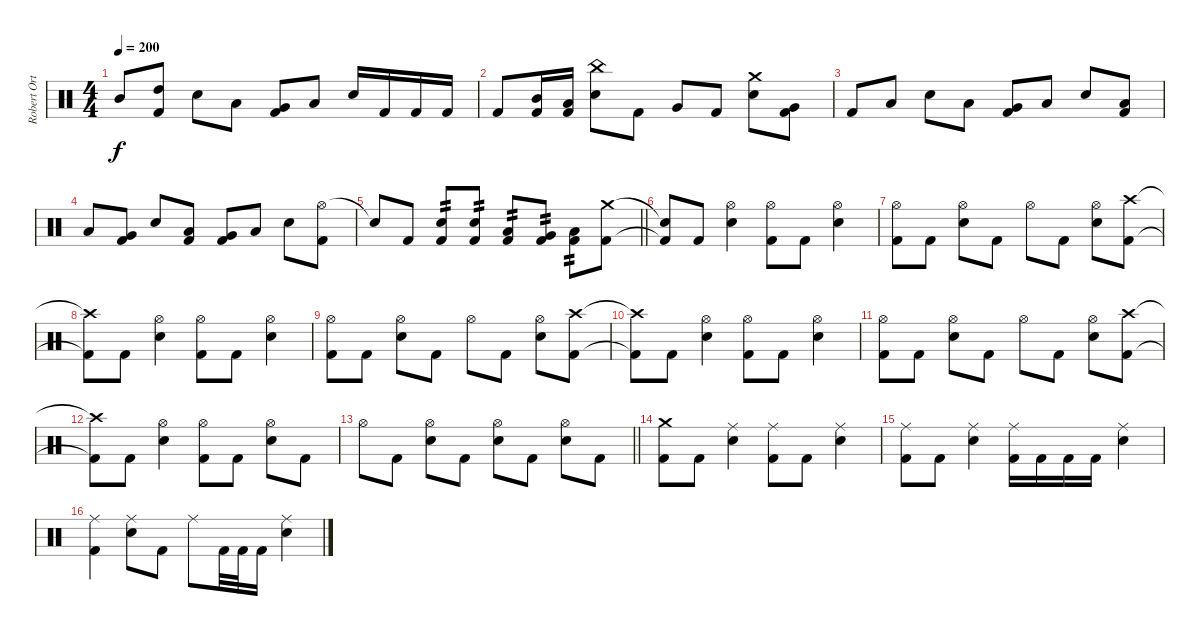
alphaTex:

\track ("Robert Ortiz - Drums" "Robert Ort") {instrument percussion}
\staff {score}
\articulation defaults
\ts (4 4)
\tempo 200
\clef neutral
\ks c "Mid Tom (hit)".8{dy f}
("High Tom (hit)" "Kick (hit) 2").8 "Electric Snare (hit)".8 "Low Floor Tom (hit)".8 ("Very Low Tom (hit)" "Kick (hit) 2").8 "Low Floor Tom (hit)".8 "Electric Snare (hit)".16 "Kick (hit) 2".16 "Kick (hit) 2".16 "Kick (hit) 2".16 |
"Kick (hit) 2".8 ("Mid Tom (hit)" "Kick (hit) 2").16 ("Low Tom (hit)" "Kick (hit) 2").16 ("China (hit)" "Electric Snare (hit)").8 "Kick (hit) 2".8 "Very Low Tom (hit)".8 "Kick (hit) 2".8 ("Crash medium (hit)" "Electric Snare (hit)").8 ("Very Low Tom (hit)" "Kick (hit) 2").8 |
"Kick (hit) 2".8 "Low Floor Tom (hit)".8 "Electric Snare (hit)".8 "Low Tom (hit)".8 ("Very Low Tom (hit)" "Kick (hit) 2").8 "Low Floor Tom (hit)".8 "Electric Snare (hit)".8 ("Low Floor Tom (hit)" "Kick (hit) 2").8 |
"Low Floor Tom (hit)".8 ("Very Low Tom (hit)" "Kick (hit) 2").8 "Electric Snare (hit)".8 ("Low Floor Tom (hit)" "Kick (hit) 2").8 ("Very Low Tom (hit)" "Kick (hit) 2").8 "Low Floor Tom (hit)".8 "Electric Snare (hit)".8 ("Hi-Hat (open)" "Kick (hit) 2").8 |
\barLineRight lightlight "Snare (hit)"{t}.8 "Kick (hit) 2".8
("Electric Snare (hit)" "Kick (hit) 2").8{tp 2} ("Electric Snare (hit)" "Kick (hit) 2").8{tp 2} ("Low Tom (hit)" "Kick (hit) 2").8{tp 2} ("Very Low Tom (hit)" "Kick (hit) 2").8{tp 2} ("Low Floor Tom (hit)" "Kick (hit) 2").8{tp 2} ("Crash medium (hit)" "Kick (hit) 2").8 |
("Snare (hit)"{t} "Kick (hit) 2"{t}).8 "Kick (hit) 2".8 ("Hi-Hat (open)" "Electric Snare (hit)").4 ("Hi-Hat (open)" "Kick (hit) 2").8 "Kick (hit) 2".8 ("Hi-Hat (open)" "Electric Snare (hit)").4 |
("Hi-Hat (open)" "Kick (hit) 2").8 "Kick (hit) 2".8 ("Hi-Hat (open)" "Electric Snare (hit)").8 "Kick (hit) 2".8 "Hi-Hat (open)".8 "Kick (hit) 2".8 ("Hi-Hat (open)" "Electric Snare (hit)").8 ("Crash high (hit)" "Kick (hit) 2").8 |
("Crash high (hit)"{t} "Kick (hit) 2"{t}).8 "Kick (hit) 2".8 ("Hi-Hat (open)" "Electric Snare (hit)").4 ("Hi-Hat (open)" "Kick (hit) 2").8 "Kick (hit) 2".8 ("Hi-Hat (open)" "Electric Snare (hit)").4 |
("Hi-Hat (open)" "Kick (hit) 2").8 "Kick (hit) 2".8 ("Hi-Hat (open)" "Electric Snare (hit)").8 "Kick (hit) 2".8 "Hi-Hat (open)".8 "Kick (hit) 2".8 ("Hi-Hat (open)" "Electric Snare (hit)").8 ("Crash high (hit)" "Kick (hit) 2").8 |
("Crash high (hit)"{t} "Kick (hit) 2"{t}).8 "Kick (hit) 2".8 ("Hi-Hat (open)" "Electric Snare (hit)").4 ("Hi-Hat (open)" "Kick (hit) 2").8 "Kick (hit) 2".8 ("Hi-Hat (open)" "Electric Snare (hit)").4 |
("Hi-Hat (open)" "Kick (hit) 2").8 "Kick (hit) 2".8 ("Hi-Hat (open)" "Electric Snare (hit)").8 "Kick (hit) 2".8 "Hi-Hat (open)".8 "Kick (hit) 2".8 ("Hi-Hat (open)" "Electric Snare (hit)").8 ("Crash high (hit)" "Kick (hit) 2").8 |
("Crash high (hit)"{t} "Kick (hit) 2"{t}).8 "Kick (hit) 2".8 ("Hi-Hat (open)" "Electric Snare (hit)").4 ("Hi-Hat (open)" "Kick (hit) 2").8 "Kick (hit) 2".8 ("Hi-Hat (open)" "Electric Snare (hit)").8 "Kick (hit) 2".8 |
\barLineRight lightlight "Hi-Hat (open)".8 "Kick (hit) 2".8
("Hi-Hat (open)" "Electric Snare (hit)").8 "Kick (hit) 2".8 ("Hi-Hat (open)" "Electric Snare (hit)").8 "Kick (hit) 2".8 ("Hi-Hat (open)" "Electric Snare (hit)").8 "Kick (hit) 2".8 |
("Crash medium (hit)" "Kick (hit) 2").8 "Kick (hit) 2".8 ("Ride (middle)" "Electric Snare (hit)").4 ("Ride (middle)" "Kick (hit) 2").8 "Kick (hit) 2".8 ("Ride (middle)" "Electric Snare (hit)").4 |
("Ride (middle)" "Kick (hit) 2").8 "Kick (hit) 2".8 ("Ride (middle)" "Electric Snare (hit)").4 ("Ride (middle)" "Kick (hit) 2").16 "Kick (hit) 2".16 "Kick (hit) 2".16 "Kick (hit) 2".16 ("Ride (middle)" "Electric Snare (hit)").4 |
("Ride (middle)" "Kick (hit) 2").4 ("Ride (middle)" "Electric Snare (hit)").8 "Kick (hit) 2".8 "Ride (middle)".8 "Kick (hit) 2".32 "Kick (hit) 2".32 "Kick (hit) 2".16 ("Ride (middle)" "Electric Snare (hit)").4
